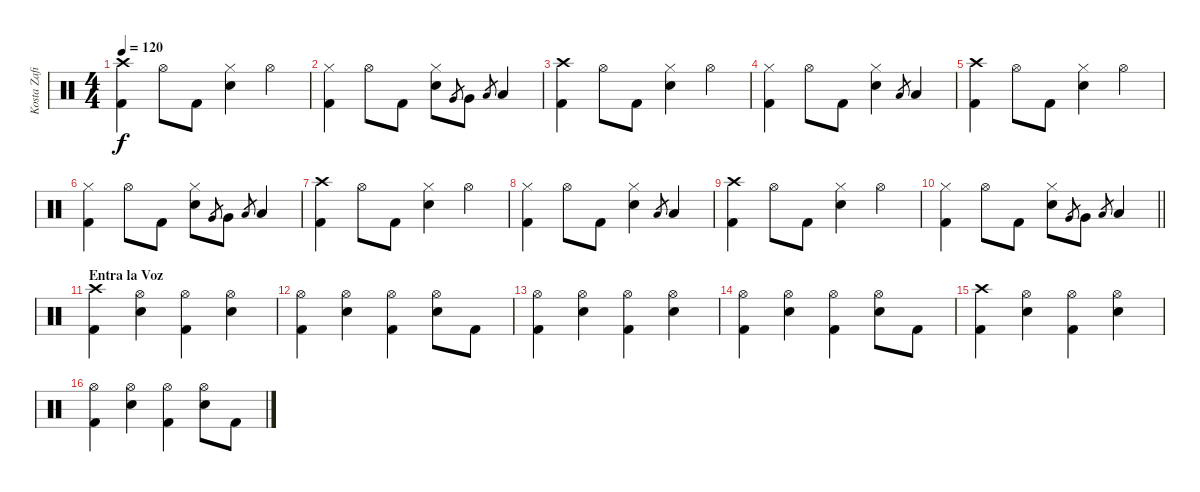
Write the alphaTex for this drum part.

\track ("Kosta Zafiriou" "Kosta Zafi") {instrument percussion}
\staff {score}
\articulation defaults
\ts (4 4)
\tempo 120
\clef neutral
\ks c
("Crash high (hit)" "Kick (hit) 2").4{dy f} "Hi-Hat (open)".8 "Kick (hit) 2".8 ("Hi-Hat (closed)" "Electric Snare (hit)").4 "Hi-Hat (open)".4 |
("Hi-Hat (closed)" "Kick (hit) 2").4 "Hi-Hat (open)".8 "Kick (hit) 2".8 ("Hi-Hat (closed)" "Electric Snare (hit)").8 "Very Low Tom (hit)".8{gr} "Very Low Tom (hit)".8 "Low Floor Tom (hit)".8{gr} "Low Floor Tom (hit)".4 |
("Crash high (hit)" "Kick (hit) 2").4 "Hi-Hat (open)".8 "Kick (hit) 2".8 ("Hi-Hat (closed)" "Electric Snare (hit)").4 "Hi-Hat (open)".4 |
("Hi-Hat (closed)" "Kick (hit) 2").4 "Hi-Hat (open)".8 "Kick (hit) 2".8 ("Hi-Hat (closed)" "Electric Snare (hit)").4 "Low Floor Tom (hit)".8{gr} "Low Floor Tom (hit)".4 |
("Crash high (hit)" "Kick (hit) 2").4 "Hi-Hat (open)".8 "Kick (hit) 2".8 ("Hi-Hat (closed)" "Electric Snare (hit)").4 "Hi-Hat (open)".4 |
("Hi-Hat (closed)" "Kick (hit) 2").4 "Hi-Hat (open)".8 "Kick (hit) 2".8 ("Hi-Hat (closed)" "Electric Snare (hit)").8 "Very Low Tom (hit)".8{gr} "Very Low Tom (hit)".8 "Low Floor Tom (hit)".8{gr} "Low Floor Tom (hit)".4 |
("Crash high (hit)" "Kick (hit) 2").4 "Hi-Hat (open)".8 "Kick (hit) 2".8 ("Hi-Hat (closed)" "Electric Snare (hit)").4 "Hi-Hat (open)".4 |
("Hi-Hat (closed)" "Kick (hit) 2").4 "Hi-Hat (open)".8 "Kick (hit) 2".8 ("Hi-Hat (closed)" "Electric Snare (hit)").4 "Low Floor Tom (hit)".8{gr} "Low Floor Tom (hit)".4 |
("Crash high (hit)" "Kick (hit) 2").4 "Hi-Hat (open)".8 "Kick (hit) 2".8 ("Hi-Hat (closed)" "Electric Snare (hit)").4 "Hi-Hat (open)".4 |
\barLineRight lightlight
("Hi-Hat (closed)" "Kick (hit) 2").4 "Hi-Hat (open)".8 "Kick (hit) 2".8 ("Hi-Hat (closed)" "Electric Snare (hit)").8 "Very Low Tom (hit)".8{gr} "Very Low Tom (hit)".8 "Low Floor Tom (hit)".8{gr} "Low Floor Tom (hit)".4 |
\section ("" "Entra la Voz")
("Crash high (hit)" "Kick (hit) 2").4 ("Hi-Hat (open)" "Electric Snare (hit)").4 ("Hi-Hat (open)" "Kick (hit) 2").4 ("Hi-Hat (open)" "Electric Snare (hit)").4 |
("Hi-Hat (open)" "Kick (hit) 2").4 ("Hi-Hat (open)" "Electric Snare (hit)").4 ("Hi-Hat (open)" "Kick (hit) 2").4 ("Hi-Hat (open)" "Electric Snare (hit)").8 "Kick (hit) 2".8 |
("Hi-Hat (open)" "Kick (hit) 2").4 ("Hi-Hat (open)" "Electric Snare (hit)").4 ("Hi-Hat (open)" "Kick (hit) 2").4 ("Hi-Hat (open)" "Electric Snare (hit)").4 |
("Hi-Hat (open)" "Kick (hit) 2").4 ("Hi-Hat (open)" "Electric Snare (hit)").4 ("Hi-Hat (open)" "Kick (hit) 2").4 ("Hi-Hat (open)" "Electric Snare (hit)").8 "Kick (hit) 2".8 |
("Crash high (hit)" "Kick (hit) 2").4 ("Hi-Hat (open)" "Electric Snare (hit)").4 ("Hi-Hat (open)" "Kick (hit) 2").4 ("Hi-Hat (open)" "Electric Snare (hit)").4 |
("Hi-Hat (open)" "Kick (hit) 2").4 ("Hi-Hat (open)" "Electric Snare (hit)").4 ("Hi-Hat (open)" "Kick (hit) 2").4 ("Hi-Hat (open)" "Electric Snare (hit)").8 "Kick (hit) 2".8
